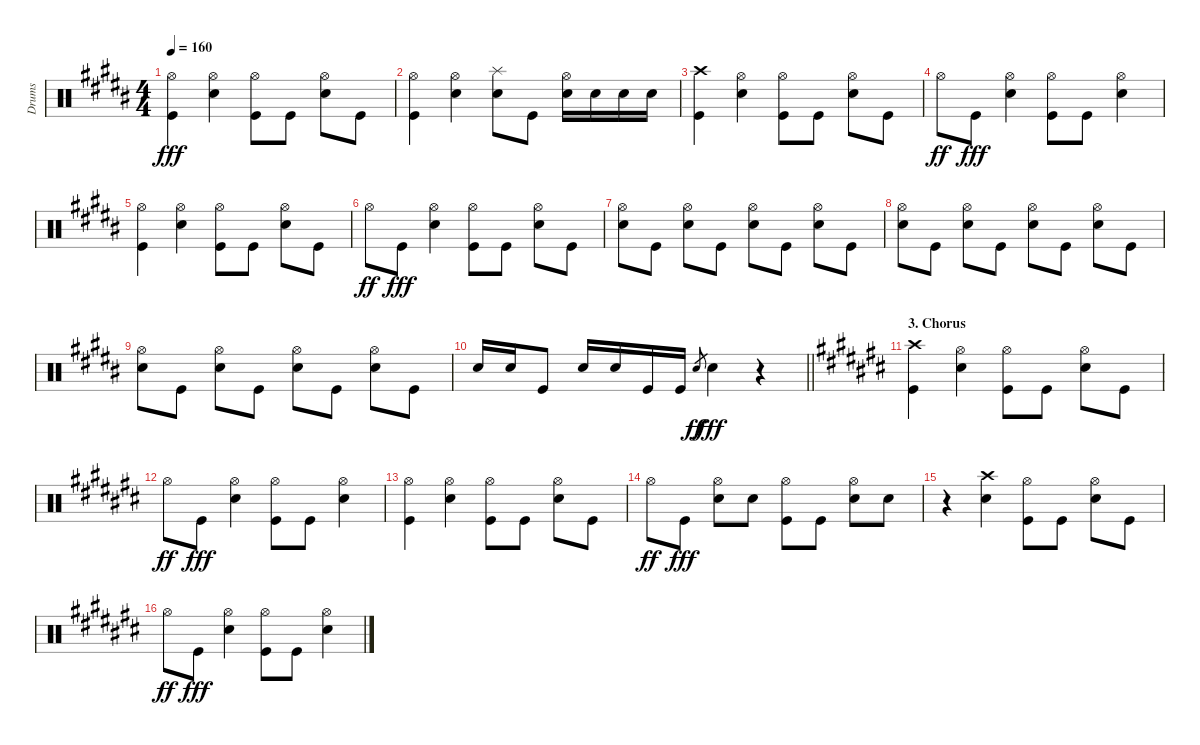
\track ("Drums" "Drums") {instrument percussion}
\staff {score}
\articulation defaults
\ts (4 4)
\tempo 160
\clef neutral
\ks b
("Hi-Hat (open)" "Kick (hit)").4{dy fff} ("Hi-Hat (open)" "Snare (hit) 2").4 ("Hi-Hat (open)" "Kick (hit)").8 "Kick (hit)".8 ("Hi-Hat (open)" "Snare (hit) 2").8 "Kick (hit)".8 |
("Hi-Hat (open)" "Kick (hit)").4 ("Hi-Hat (open)" "Snare (hit) 2").4 ("Splash (hit)" "Snare (hit) 2").8 "Kick (hit)".8 ("Hi-Hat (open)" "Snare (hit) 2").16 "Snare (hit) 2".16 "Snare (hit) 2".16 "Snare (hit) 2".16 |
("Crash high (hit)" "Kick (hit)").4 ("Hi-Hat (open)" "Snare (hit) 2").4 ("Hi-Hat (open)" "Kick (hit)").8 "Kick (hit)".8 ("Hi-Hat (open)" "Snare (hit) 2").8 "Kick (hit)".8 |
"Hi-Hat (open)".8{dy ff} "Kick (hit)".8{dy fff} ("Hi-Hat (open)" "Snare (hit) 2").4 ("Hi-Hat (open)" "Kick (hit)").8 "Kick (hit)".8 ("Hi-Hat (open)" "Snare (hit) 2").4 |
("Hi-Hat (open)" "Kick (hit)").4 ("Hi-Hat (open)" "Snare (hit) 2").4 ("Hi-Hat (open)" "Kick (hit)").8 "Kick (hit)".8 ("Hi-Hat (open)" "Snare (hit) 2").8 "Kick (hit)".8 |
"Hi-Hat (open)".8{dy ff} "Kick (hit)".8{dy fff} ("Hi-Hat (open)" "Snare (hit) 2").4 ("Hi-Hat (open)" "Kick (hit)").8 "Kick (hit)".8 ("Hi-Hat (open)" "Snare (hit) 2").8 "Kick (hit)".8 |
("Hi-Hat (open)" "Snare (hit) 2").8 "Kick (hit)".8 ("Hi-Hat (open)" "Snare (hit) 2").8 "Kick (hit)".8 ("Hi-Hat (open)" "Snare (hit) 2").8 "Kick (hit)".8 ("Hi-Hat (open)" "Snare (hit) 2").8 "Kick (hit)".8 |
("Hi-Hat (open)" "Snare (hit) 2").8 "Kick (hit)".8 ("Hi-Hat (open)" "Snare (hit) 2").8 "Kick (hit)".8 ("Hi-Hat (open)" "Snare (hit) 2").8 "Kick (hit)".8 ("Hi-Hat (open)" "Snare (hit) 2").8 "Kick (hit)".8 |
("Hi-Hat (open)" "Snare (hit) 2").8 "Kick (hit)".8 ("Hi-Hat (open)" "Snare (hit) 2").8 "Kick (hit)".8 ("Hi-Hat (open)" "Snare (hit) 2").8 "Kick (hit)".8 ("Hi-Hat (open)" "Snare (hit) 2").8 "Kick (hit)".8 |
\barLineRight lightlight "Snare (hit) 2".16 "Snare (hit) 2".16 "Kick (hit)".8 "Snare (hit) 2".16 "Snare (hit) 2".16 "Kick (hit)".16 "Kick (hit)".16 "Snare (hit) 2".8{gr dy ff} "Snare (hit) 2".4{dy fff}
r.4 |
\section ("" "3. Chorus")
\ks c#
("Crash high (hit)" "Kick (hit)").4 ("Hi-Hat (open)" "Snare (hit) 2").4 ("Hi-Hat (open)" "Kick (hit)").8 "Kick (hit)".8 ("Hi-Hat (open)" "Snare (hit) 2").8 "Kick (hit)".8 |
"Hi-Hat (open)".8{dy ff} "Kick (hit)".8{dy fff} ("Hi-Hat (open)" "Snare (hit) 2").4 ("Hi-Hat (open)" "Kick (hit)").8 "Kick (hit)".8 ("Hi-Hat (open)" "Snare (hit) 2").4 |
("Hi-Hat (open)" "Kick (hit)").4 ("Hi-Hat (open)" "Snare (hit) 2").4 ("Hi-Hat (open)" "Kick (hit)").8 "Kick (hit)".8 ("Hi-Hat (open)" "Snare (hit) 2").8 "Kick (hit)".8 |
"Hi-Hat (open)".8{dy ff} "Kick (hit)".8{dy fff} ("Hi-Hat (open)" "Snare (hit) 2").8 "Snare (hit) 2".8 ("Hi-Hat (open)" "Kick (hit)").8 "Kick (hit)".8 ("Hi-Hat (open)" "Snare (hit) 2").8 "Snare (hit) 2".8 |
r.4 ("Crash high (hit)" "Snare (hit) 2").4 ("Hi-Hat (open)" "Kick (hit)").8 "Kick (hit)".8 ("Hi-Hat (open)" "Snare (hit) 2").8 "Kick (hit)".8 |
"Hi-Hat (open)".8{dy ff} "Kick (hit)".8{dy fff} ("Hi-Hat (open)" "Snare (hit) 2").4 ("Hi-Hat (open)" "Kick (hit)").8 "Kick (hit)".8 ("Hi-Hat (open)" "Snare (hit) 2").4
